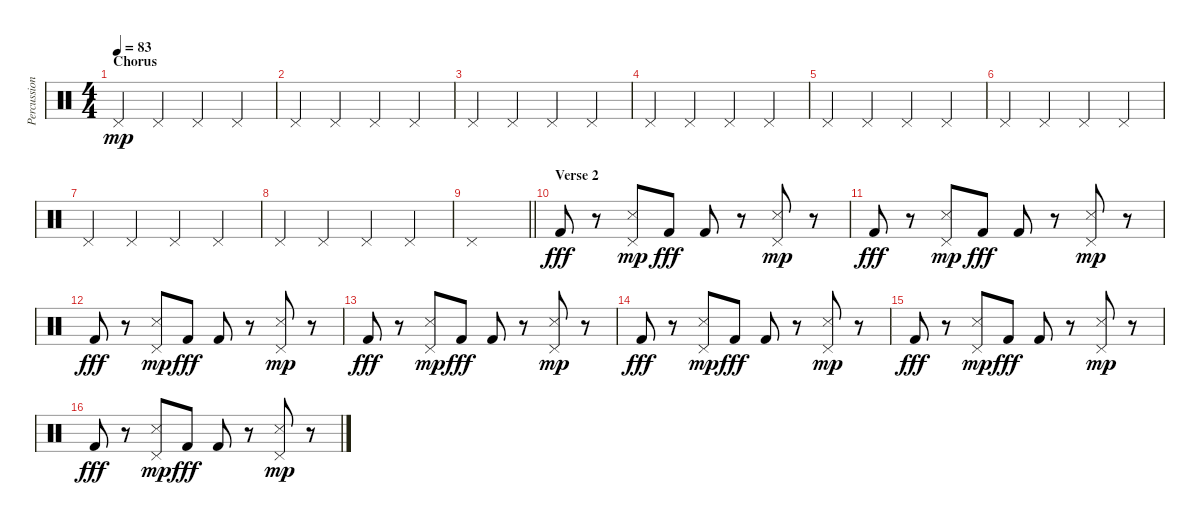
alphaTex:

\track ("Percussion" "Percussion") {instrument percussion}
\staff {score}
\articulation defaults
\ts (4 4)
\section ("" "Chorus")
\tempo 83
\clef neutral
\ks c "Pedal Hi-Hat (hit)".4{dy mp} "Pedal Hi-Hat (hit)".4 "Pedal Hi-Hat (hit)".4 "Pedal Hi-Hat (hit)".4
|
"Pedal Hi-Hat (hit)".4 "Pedal Hi-Hat (hit)".4 "Pedal Hi-Hat (hit)".4 "Pedal Hi-Hat (hit)".4 |
"Pedal Hi-Hat (hit)".4 "Pedal Hi-Hat (hit)".4 "Pedal Hi-Hat (hit)".4 "Pedal Hi-Hat (hit)".4 |
"Pedal Hi-Hat (hit)".4 "Pedal Hi-Hat (hit)".4 "Pedal Hi-Hat (hit)".4 "Pedal Hi-Hat (hit)".4 |
"Pedal Hi-Hat (hit)".4 "Pedal Hi-Hat (hit)".4 "Pedal Hi-Hat (hit)".4 "Pedal Hi-Hat (hit)".4 |
"Pedal Hi-Hat (hit)".4 "Pedal Hi-Hat (hit)".4 "Pedal Hi-Hat (hit)".4 "Pedal Hi-Hat (hit)".4 |
"Pedal Hi-Hat (hit)".4 "Pedal Hi-Hat (hit)".4 "Pedal Hi-Hat (hit)".4 "Pedal Hi-Hat (hit)".4 |
"Pedal Hi-Hat (hit)".4 "Pedal Hi-Hat (hit)".4 "Pedal Hi-Hat (hit)".4 "Pedal Hi-Hat (hit)".4 |
\barLineRight lightlight "Pedal Hi-Hat (hit)".1
|
\section ("" "Verse 2")
"Kick (hit) 2".8{dy fff} r.8 ("Snare (side stick) 3" "Pedal Hi-Hat (hit)").8{dy mp} "Kick (hit) 2".8{dy fff} "Kick (hit) 2".8 r.8 ("Snare (side stick) 3" "Pedal Hi-Hat (hit)").8{dy mp} r.8 |
"Kick (hit) 2".8{dy fff} r.8 ("Snare (side stick) 3" "Pedal Hi-Hat (hit)").8{dy mp} "Kick (hit) 2".8{dy fff} "Kick (hit) 2".8 r.8 ("Snare (side stick) 3" "Pedal Hi-Hat (hit)").8{dy mp} r.8 |
"Kick (hit) 2".8{dy fff} r.8 ("Snare (side stick) 3" "Pedal Hi-Hat (hit)").8{dy mp} "Kick (hit) 2".8{dy fff} "Kick (hit) 2".8 r.8 ("Snare (side stick) 3" "Pedal Hi-Hat (hit)").8{dy mp} r.8 |
"Kick (hit) 2".8{dy fff} r.8 ("Snare (side stick) 3" "Pedal Hi-Hat (hit)").8{dy mp} "Kick (hit) 2".8{dy fff} "Kick (hit) 2".8 r.8 ("Snare (side stick) 3" "Pedal Hi-Hat (hit)").8{dy mp} r.8 |
"Kick (hit) 2".8{dy fff} r.8 ("Snare (side stick) 3" "Pedal Hi-Hat (hit)").8{dy mp} "Kick (hit) 2".8{dy fff} "Kick (hit) 2".8 r.8 ("Snare (side stick) 3" "Pedal Hi-Hat (hit)").8{dy mp} r.8 |
"Kick (hit) 2".8{dy fff} r.8 ("Snare (side stick) 3" "Pedal Hi-Hat (hit)").8{dy mp} "Kick (hit) 2".8{dy fff} "Kick (hit) 2".8 r.8 ("Snare (side stick) 3" "Pedal Hi-Hat (hit)").8{dy mp} r.8 |
"Kick (hit) 2".8{dy fff} r.8 ("Snare (side stick) 3" "Pedal Hi-Hat (hit)").8{dy mp} "Kick (hit) 2".8{dy fff} "Kick (hit) 2".8 r.8 ("Snare (side stick) 3" "Pedal Hi-Hat (hit)").8{dy mp} r.8
